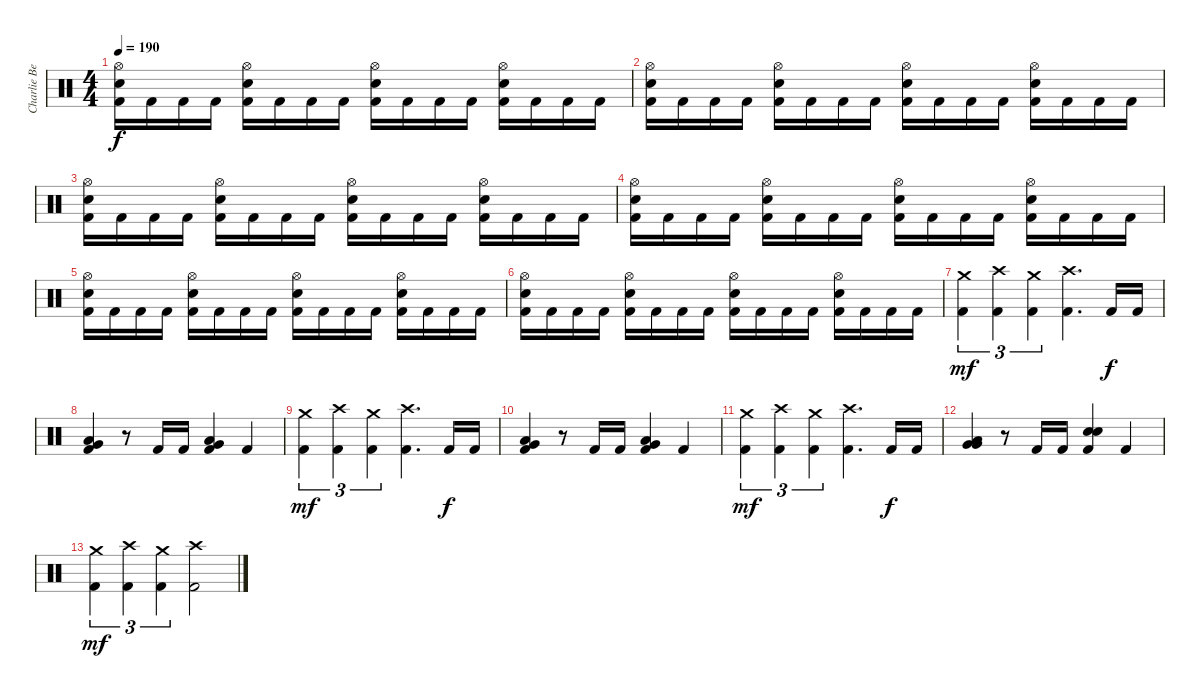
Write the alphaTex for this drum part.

\track ("Charlie Benante" "Charlie Be") {instrument percussion}
\staff {score}
\articulation defaults
\ts (4 4)
\tempo 190
\clef neutral
\ks c
("Kick (hit) 2" "Snare (hit) 2" "Hi-Hat (open)").16{dy f} "Kick (hit) 2".16 "Kick (hit) 2".16 "Kick (hit) 2".16 ("Kick (hit) 2" "Snare (hit) 2" "Hi-Hat (open)").16 "Kick (hit) 2".16 "Kick (hit) 2".16 "Kick (hit) 2".16 ("Kick (hit) 2" "Snare (hit) 2" "Hi-Hat (open)").16 "Kick (hit) 2".16 "Kick (hit) 2".16 "Kick (hit) 2".16 ("Kick (hit) 2" "Snare (hit) 2" "Hi-Hat (open)").16 "Kick (hit) 2".16 "Kick (hit) 2".16 "Kick (hit) 2".16 |
("Kick (hit) 2" "Snare (hit) 2" "Hi-Hat (open)").16 "Kick (hit) 2".16 "Kick (hit) 2".16 "Kick (hit) 2".16 ("Kick (hit) 2" "Snare (hit) 2" "Hi-Hat (open)").16 "Kick (hit) 2".16 "Kick (hit) 2".16 "Kick (hit) 2".16 ("Kick (hit) 2" "Snare (hit) 2" "Hi-Hat (open)").16 "Kick (hit) 2".16 "Kick (hit) 2".16 "Kick (hit) 2".16 ("Kick (hit) 2" "Snare (hit) 2" "Hi-Hat (open)").16 "Kick (hit) 2".16 "Kick (hit) 2".16 "Kick (hit) 2".16 |
("Kick (hit) 2" "Snare (hit) 2" "Hi-Hat (open)").16 "Kick (hit) 2".16 "Kick (hit) 2".16 "Kick (hit) 2".16 ("Kick (hit) 2" "Snare (hit) 2" "Hi-Hat (open)").16 "Kick (hit) 2".16 "Kick (hit) 2".16 "Kick (hit) 2".16 ("Kick (hit) 2" "Snare (hit) 2" "Hi-Hat (open)").16 "Kick (hit) 2".16 "Kick (hit) 2".16 "Kick (hit) 2".16 ("Kick (hit) 2" "Snare (hit) 2" "Hi-Hat (open)").16 "Kick (hit) 2".16 "Kick (hit) 2".16 "Kick (hit) 2".16 |
("Kick (hit) 2" "Snare (hit) 2" "Hi-Hat (open)").16 "Kick (hit) 2".16 "Kick (hit) 2".16 "Kick (hit) 2".16 ("Kick (hit) 2" "Snare (hit) 2" "Hi-Hat (open)").16 "Kick (hit) 2".16 "Kick (hit) 2".16 "Kick (hit) 2".16 ("Kick (hit) 2" "Snare (hit) 2" "Hi-Hat (open)").16 "Kick (hit) 2".16 "Kick (hit) 2".16 "Kick (hit) 2".16 ("Kick (hit) 2" "Snare (hit) 2" "Hi-Hat (open)").16 "Kick (hit) 2".16 "Kick (hit) 2".16 "Kick (hit) 2".16 |
("Kick (hit) 2" "Snare (hit) 2" "Hi-Hat (open)").16 "Kick (hit) 2".16 "Kick (hit) 2".16 "Kick (hit) 2".16 ("Kick (hit) 2" "Snare (hit) 2" "Hi-Hat (open)").16 "Kick (hit) 2".16 "Kick (hit) 2".16 "Kick (hit) 2".16 ("Kick (hit) 2" "Snare (hit) 2" "Hi-Hat (open)").16 "Kick (hit) 2".16 "Kick (hit) 2".16 "Kick (hit) 2".16 ("Kick (hit) 2" "Snare (hit) 2" "Hi-Hat (open)").16 "Kick (hit) 2".16 "Kick (hit) 2".16 "Kick (hit) 2".16 |
("Kick (hit) 2" "Snare (hit) 2" "Hi-Hat (open)").16 "Kick (hit) 2".16 "Kick (hit) 2".16 "Kick (hit) 2".16 ("Kick (hit) 2" "Snare (hit) 2" "Hi-Hat (open)").16 "Kick (hit) 2".16 "Kick (hit) 2".16 "Kick (hit) 2".16 ("Kick (hit) 2" "Snare (hit) 2" "Hi-Hat (open)").16 "Kick (hit) 2".16 "Kick (hit) 2".16 "Kick (hit) 2".16 ("Kick (hit) 2" "Snare (hit) 2" "Hi-Hat (open)").16 "Kick (hit) 2".16 "Kick (hit) 2".16 "Kick (hit) 2".16 |
("Kick (hit) 2" "Crash medium (hit)").4{tu (3 2) dy mf} ("Kick (hit) 2" "Crash high (hit)").4{tu (3 2)} ("Kick (hit) 2" "Crash medium (hit)").4{tu (3 2)} ("Kick (hit) 2" "Crash high (hit)").4{d} "Kick (hit) 2".16{dy f} "Kick (hit) 2".16 |
("Kick (hit) 2" "Low Floor Tom (hit)" "Very Low Tom (hit)").4 r.8 "Kick (hit) 2".16 "Kick (hit) 2".16 ("Kick (hit) 2" "Low Floor Tom (hit)" "Very Low Tom (hit)").4 "Kick (hit) 2".4 |
("Kick (hit) 2" "Crash medium (hit)").4{tu (3 2) dy mf} ("Kick (hit) 2" "Crash high (hit)").4{tu (3 2)} ("Kick (hit) 2" "Crash medium (hit)").4{tu (3 2)} ("Kick (hit) 2" "Crash high (hit)").4{d} "Kick (hit) 2".16{dy f} "Kick (hit) 2".16 |
("Kick (hit) 2" "Low Floor Tom (hit)" "Very Low Tom (hit)").4 r.8 "Kick (hit) 2".16 "Kick (hit) 2".16 ("Kick (hit) 2" "Low Floor Tom (hit)" "Very Low Tom (hit)").4 "Kick (hit) 2".4 |
("Kick (hit) 2" "Crash medium (hit)").4{tu (3 2) dy mf} ("Kick (hit) 2" "Crash high (hit)").4{tu (3 2)} ("Kick (hit) 2" "Crash medium (hit)").4{tu (3 2)} ("Kick (hit) 2" "Crash high (hit)").4{d} "Kick (hit) 2".16{dy f} "Kick (hit) 2".16 |
("Low Floor Tom (hit)" "Very Low Tom (hit)" "Very Low Tom (hit)").4 r.8 "Kick (hit) 2".16 "Kick (hit) 2".16 ("Kick (hit) 2" "Snare (hit) 2" "Snare (hit) 2").4 "Kick (hit) 2".4 |
("Kick (hit) 2" "Crash medium (hit)").4{tu (3 2) dy mf} ("Kick (hit) 2" "Crash high (hit)").4{tu (3 2)} ("Kick (hit) 2" "Crash medium (hit)").4{tu (3 2)} ("Kick (hit) 2" "Crash high (hit)").2
